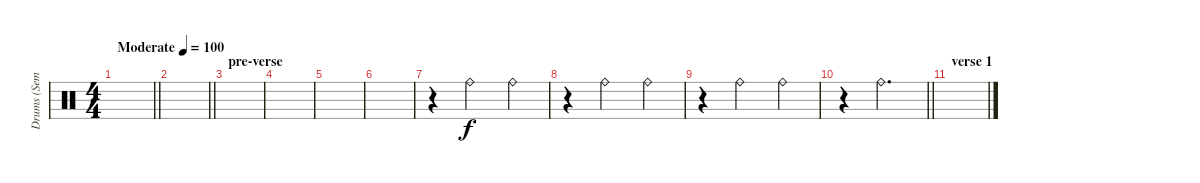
\track ("Drums (Semple)" "Drums (Sem") {instrument percussion}
\staff {score}
\articulation defaults
\ts (4 4)
\tempo (100 "Moderate")
\clef neutral
\barLineRight lightlight
\ks c
|
\section ("" "")
\barLineRight lightlight
|
\section ("" "pre-verse")
|
|
|
|
r.4 "Ride (bell)".2 "Ride (bell)".4 |
r.4 "Ride (bell)".2 "Ride (bell)".4 |
r.4 "Ride (bell)".2 "Ride (bell)".4 |
\barLineRight lightlight
r.4 "Ride (bell)".2{d} |
\section ("" "verse 1")
